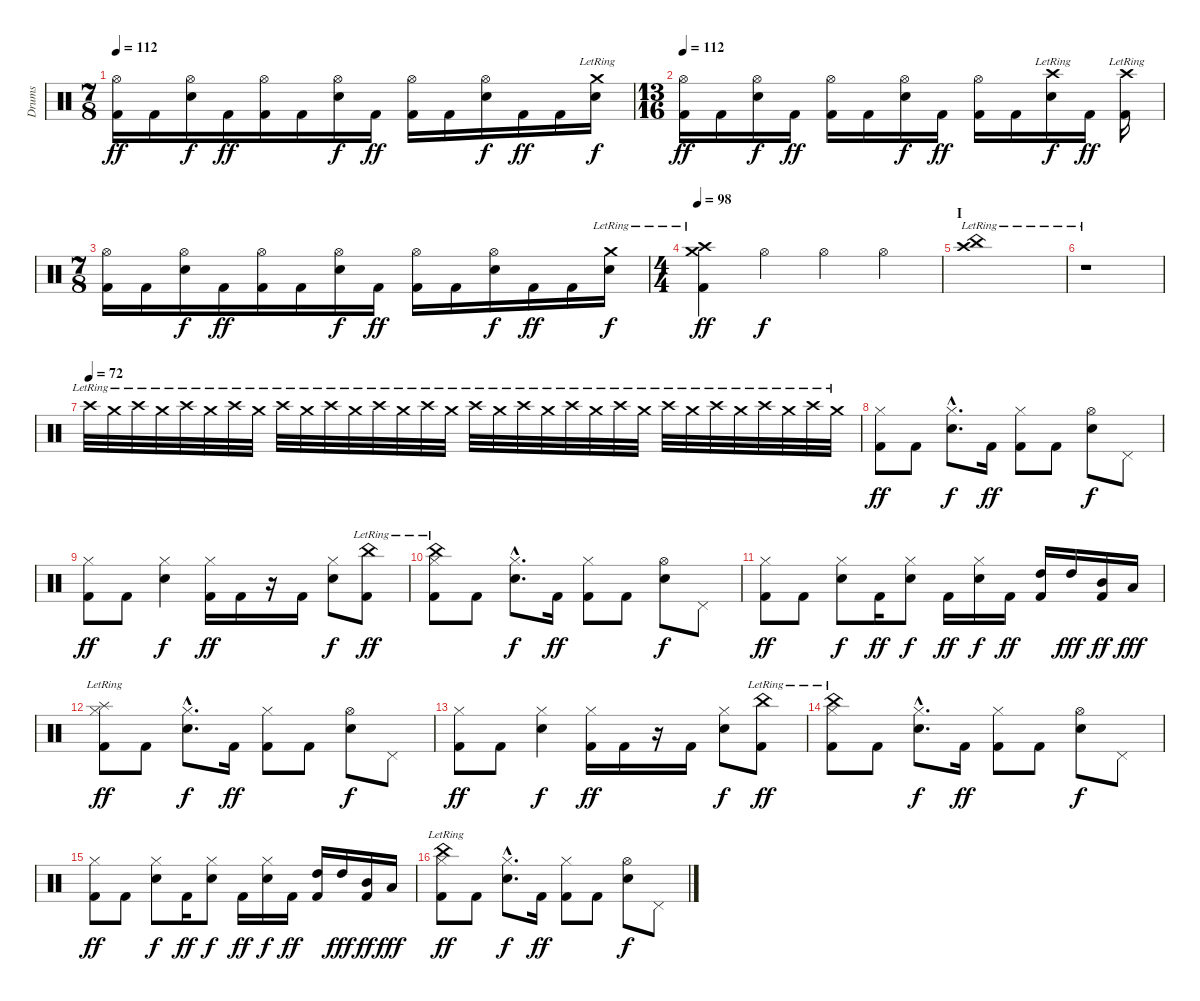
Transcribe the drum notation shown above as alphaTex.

\track ("Drums" "Drums") {instrument percussion}
\staff {score}
\articulation defaults
\ts (7 8)
\tempo 112
\clef neutral
\ks c
("Hi-Hat (open)" "Kick (hit) 2").16{dy ff} "Kick (hit) 2".16 ("Hi-Hat (open)" "Snare (hit) 2").16{dy f} "Kick (hit) 2".16{dy ff} ("Hi-Hat (open)" "Kick (hit) 2").16 "Kick (hit) 2".16 ("Hi-Hat (open)" "Snare (hit) 2").16{dy f} "Kick (hit) 2".16{dy ff} ("Hi-Hat (open)" "Kick (hit) 2").16 "Kick (hit) 2".16 ("Hi-Hat (open)" "Snare (hit) 2").16{dy f} "Kick (hit) 2".16{dy ff} "Kick (hit) 2".16 ("Crash medium (hit)"{lr} "Snare (hit) 2").16{dy f} |
\ts (13 16)
\tempo 112
("Hi-Hat (open)" "Kick (hit) 2").16{dy ff} "Kick (hit) 2".16 ("Hi-Hat (open)" "Snare (hit) 2").16{dy f} "Kick (hit) 2".16{dy ff} ("Hi-Hat (open)" "Kick (hit) 2").16 "Kick (hit) 2".16 ("Hi-Hat (open)" "Snare (hit) 2").16{dy f} "Kick (hit) 2".16{dy ff} ("Hi-Hat (open)" "Kick (hit) 2").16 "Kick (hit) 2".16 ("Crash high (hit)"{lr} "Snare (hit) 2").16{dy f} "Kick (hit) 2".16{dy ff} ("Crash high (hit)"{lr} "Kick (hit) 2").16 |
\ts (7 8)
("Hi-Hat (open)" "Kick (hit) 2").16 "Kick (hit) 2".16 ("Hi-Hat (open)" "Snare (hit) 2").16{dy f} "Kick (hit) 2".16{dy ff} ("Hi-Hat (open)" "Kick (hit) 2").16 "Kick (hit) 2".16 ("Hi-Hat (open)" "Snare (hit) 2").16{dy f} "Kick (hit) 2".16{dy ff} ("Hi-Hat (open)" "Kick (hit) 2").16 "Kick (hit) 2".16 ("Hi-Hat (open)" "Snare (hit) 2").16{dy f} "Kick (hit) 2".16{dy ff} "Kick (hit) 2".16 ("Crash medium (hit)"{lr} "Snare (hit) 2").16{dy f} |
\ts (4 4)
\tempo 98
("Crash medium (hit)"{lr} "Crash high (hit)" "Kick (hit) 2").4{dy ff} "Hi-Hat (open)".4{dy f} "Hi-Hat (open)".4 "Hi-Hat (open)".4 |
\section ("" "I")
("China (hit)"{lr} "Crash high (hit)").1 |
r.1{volume 0} |
\tempo (72)
"Crash high (hit)"{lr}.32{volume 16} "Crash medium (hit)"{lr}.32 "Crash high (hit)"{lr}.32 "Crash medium (hit)"{lr}.32 "Crash high (hit)"{lr}.32 "Crash medium (hit)"{lr}.32 "Crash high (hit)"{lr}.32 "Crash medium (hit)"{lr}.32 "Crash high (hit)"{lr}.32 "Crash medium (hit)"{lr}.32 "Crash high (hit)"{lr}.32 "Crash medium (hit)"{lr}.32 "Crash high (hit)"{lr}.32 "Crash medium (hit)"{lr}.32 "Crash high (hit)"{lr}.32 "Crash medium (hit)"{lr}.32 "Crash high (hit)"{lr}.32 "Crash medium (hit)"{lr}.32 "Crash high (hit)"{lr}.32 "Crash medium (hit)"{lr}.32 "Crash high (hit)"{lr}.32 "Crash medium (hit)"{lr}.32 "Crash high (hit)"{lr}.32 "Crash medium (hit)"{lr}.32 "Crash high (hit)"{lr}.32 "Crash medium (hit)"{lr}.32 "Crash high (hit)"{lr}.32 "Crash medium (hit)"{lr}.32 "Crash high (hit)"{lr}.32 "Crash medium (hit)"{lr}.32 "Crash high (hit)"{lr}.32 "Crash medium (hit)"{lr}.32 |
("Hi-Hat (closed)" "Kick (hit) 2").8{dy ff} "Kick (hit) 2".8 ("Hi-Hat (closed)"{hac} "Snare (hit) 2"{hac}).8{d dy f} "Kick (hit) 2".16{dy ff} ("Hi-Hat (closed)" "Kick (hit) 2").8 "Kick (hit) 2".8 ("Hi-Hat (open)" "Snare (hit) 2").8{dy f} "Pedal Hi-Hat (hit)".8 |
("Hi-Hat (closed)" "Kick (hit) 2").8{dy ff} "Kick (hit) 2".8 ("Hi-Hat (closed)" "Snare (hit) 2").4{dy f} ("Hi-Hat (closed)" "Kick (hit) 2").16{dy ff} "Kick (hit) 2".16 r.16 "Kick (hit) 2".16 ("Hi-Hat (closed)" "Snare (hit) 2").8{dy f} ("China (hit)"{lr} "Kick (hit) 2").8{dy ff} |
("China (hit)"{lr} "Hi-Hat (closed)" "Kick (hit) 2").8 "Kick (hit) 2".8 ("Hi-Hat (closed)"{hac} "Snare (hit) 2"{hac}).8{d dy f} "Kick (hit) 2".16{dy ff} ("Hi-Hat (closed)" "Kick (hit) 2").8 "Kick (hit) 2".8 ("Hi-Hat (open)" "Snare (hit) 2").8{dy f} "Pedal Hi-Hat (hit)".8 |
("Hi-Hat (closed)" "Kick (hit) 2").8{dy ff} "Kick (hit) 2".8 ("Hi-Hat (closed)" "Snare (hit) 2").8{dy f} "Kick (hit) 2".16{dy ff} ("Hi-Hat (closed)" "Snare (hit) 2").8{dy f} "Kick (hit) 2".16{dy ff} ("Hi-Hat (closed)" "Snare (hit) 2").16{dy f} "Kick (hit) 2".16{dy ff} ("High Tom (hit)" "Kick (hit) 2").16 "High Tom (hit)".16{dy fff} ("Mid Tom (hit)" "Kick (hit) 2").16{dy ff} "Low Tom (hit)".16{dy fff} |
("Splash (hit)"{lr} "Hi-Hat (closed)" "Kick (hit) 2").8{dy ff} "Kick (hit) 2".8 ("Hi-Hat (closed)"{hac} "Snare (hit) 2"{hac}).8{d dy f} "Kick (hit) 2".16{dy ff} ("Hi-Hat (closed)" "Kick (hit) 2").8 "Kick (hit) 2".8 ("Hi-Hat (open)" "Snare (hit) 2").8{dy f} "Pedal Hi-Hat (hit)".8 |
("Hi-Hat (closed)" "Kick (hit) 2").8{dy ff} "Kick (hit) 2".8 ("Hi-Hat (closed)" "Snare (hit) 2").4{dy f} ("Hi-Hat (closed)" "Kick (hit) 2").16{dy ff} "Kick (hit) 2".16 r.16 "Kick (hit) 2".16 ("Hi-Hat (closed)" "Snare (hit) 2").8{dy f} ("China (hit)"{lr} "Kick (hit) 2").8{dy ff} |
("China (hit)"{lr} "Hi-Hat (closed)" "Kick (hit) 2").8 "Kick (hit) 2".8 ("Hi-Hat (closed)"{hac} "Snare (hit) 2"{hac}).8{d dy f} "Kick (hit) 2".16{dy ff} ("Hi-Hat (closed)" "Kick (hit) 2").8 "Kick (hit) 2".8 ("Hi-Hat (open)" "Snare (hit) 2").8{dy f} "Pedal Hi-Hat (hit)".8 |
("Hi-Hat (closed)" "Kick (hit) 2").8{dy ff} "Kick (hit) 2".8 ("Hi-Hat (closed)" "Snare (hit) 2").8{dy f} "Kick (hit) 2".16{dy ff} ("Hi-Hat (closed)" "Snare (hit) 2").8{dy f} "Kick (hit) 2".16{dy ff} ("Hi-Hat (closed)" "Snare (hit) 2").16{dy f} "Kick (hit) 2".16{dy ff} ("High Tom (hit)" "Kick (hit) 2").16 "High Tom (hit)".16{dy fff} ("Mid Tom (hit)" "Kick (hit) 2").16{dy ff} "Low Tom (hit)".16{dy fff} |
("China (hit)"{lr} "Hi-Hat (closed)" "Kick (hit) 2").8{dy ff} "Kick (hit) 2".8 ("Hi-Hat (closed)"{hac} "Snare (hit) 2"{hac}).8{d dy f} "Kick (hit) 2".16{dy ff} ("Hi-Hat (closed)" "Kick (hit) 2").8 "Kick (hit) 2".8 ("Hi-Hat (open)" "Snare (hit) 2").8{dy f} "Pedal Hi-Hat (hit)".8
